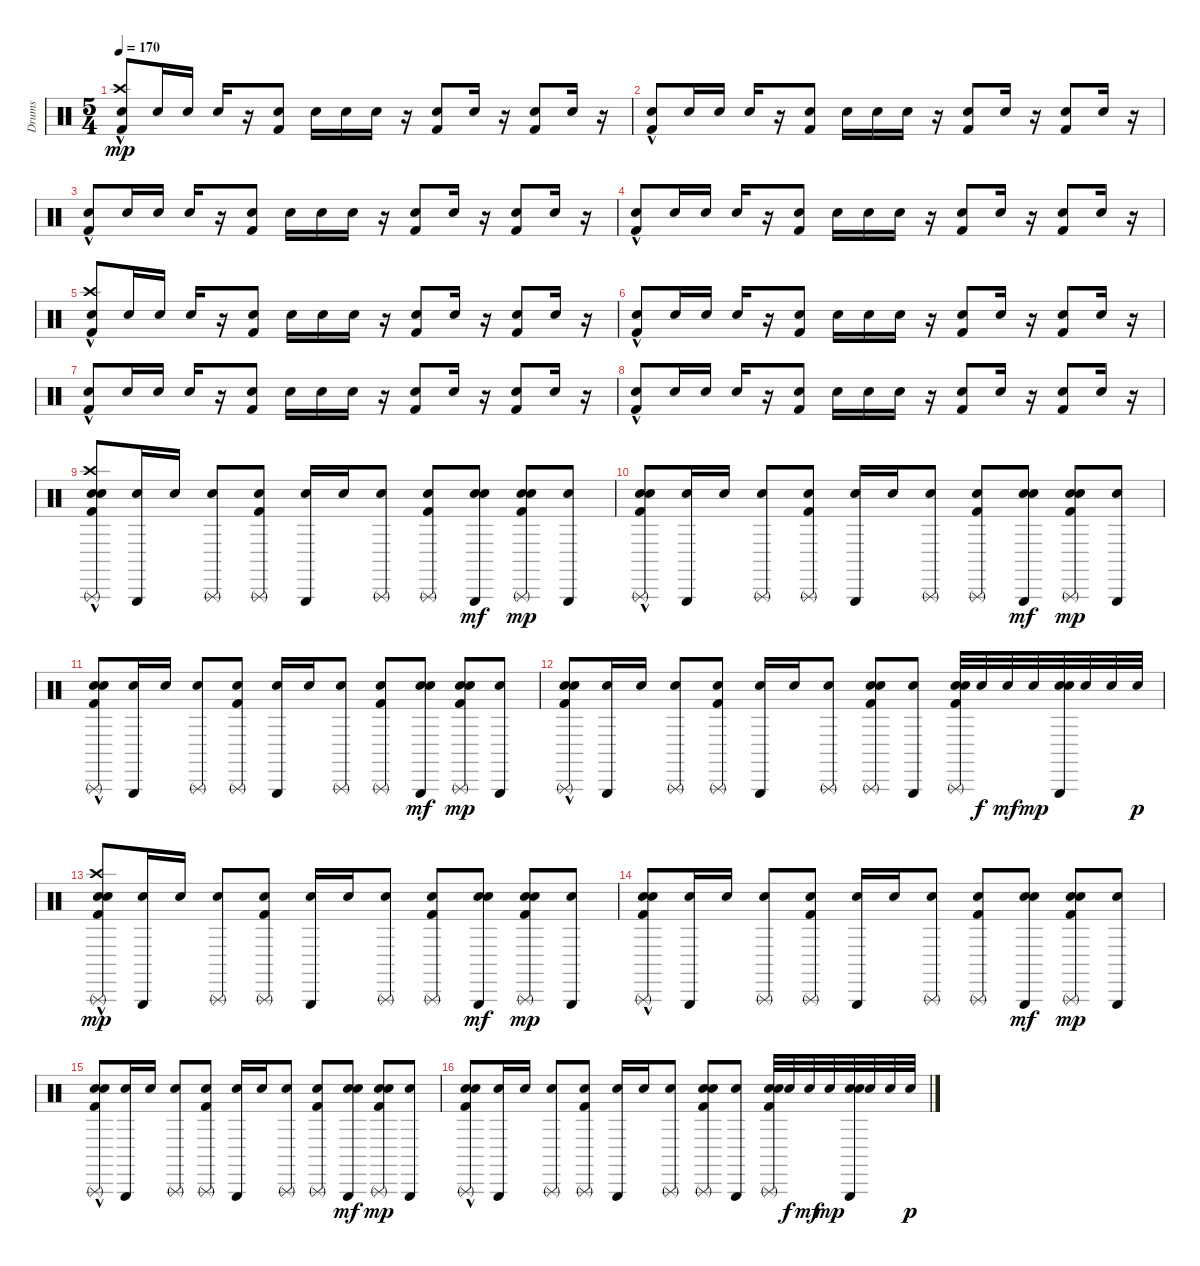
\track ("Drums" "Drums") {instrument percussion}
\staff {score}
\articulation defaults
\ts (5 4)
\tempo 170
\clef neutral
\ks c
("Metronome (bell)" "Crash high (hit)" "Kick (hit) 2"{hac}).8{dy mp} "Metronome (bell)".16 "Metronome (bell)".16 "Metronome (bell)".16 r.16 ("Metronome (bell)" "Kick (hit) 2").8 "Metronome (bell)".16 "Metronome (bell)".16 "Metronome (bell)".16 r.16 ("Metronome (bell)" "Kick (hit) 2").8 "Metronome (bell)".16 r.16 ("Metronome (bell)" "Kick (hit) 2").8 "Metronome (bell)".16 r.16 |
("Metronome (bell)" "Kick (hit) 2"{hac}).8 "Metronome (bell)".16 "Metronome (bell)".16 "Metronome (bell)".16 r.16 ("Metronome (bell)" "Kick (hit) 2").8 "Metronome (bell)".16 "Metronome (bell)".16 "Metronome (bell)".16 r.16 ("Metronome (bell)" "Kick (hit) 2").8 "Metronome (bell)".16 r.16 ("Metronome (bell)" "Kick (hit) 2").8 "Metronome (bell)".16 r.16 |
("Metronome (bell)" "Kick (hit) 2"{hac}).8 "Metronome (bell)".16 "Metronome (bell)".16 "Metronome (bell)".16 r.16 ("Metronome (bell)" "Kick (hit) 2").8 "Metronome (bell)".16 "Metronome (bell)".16 "Metronome (bell)".16 r.16 ("Metronome (bell)" "Kick (hit) 2").8 "Metronome (bell)".16 r.16 ("Metronome (bell)" "Kick (hit) 2").8 "Metronome (bell)".16 r.16 |
("Metronome (bell)" "Kick (hit) 2"{hac}).8 "Metronome (bell)".16 "Metronome (bell)".16 "Metronome (bell)".16 r.16 ("Metronome (bell)" "Kick (hit) 2").8 "Metronome (bell)".16 "Metronome (bell)".16 "Metronome (bell)".16 r.16 ("Metronome (bell)" "Kick (hit) 2").8 "Metronome (bell)".16 r.16 ("Metronome (bell)" "Kick (hit) 2").8 "Metronome (bell)".16 r.16 |
("Metronome (bell)" "Crash high (hit)" "Kick (hit) 2"{hac}).8 "Metronome (bell)".16 "Metronome (bell)".16 "Metronome (bell)".16 r.16 ("Metronome (bell)" "Kick (hit) 2").8 "Metronome (bell)".16 "Metronome (bell)".16 "Metronome (bell)".16 r.16 ("Metronome (bell)" "Kick (hit) 2").8 "Metronome (bell)".16 r.16 ("Metronome (bell)" "Kick (hit) 2").8 "Metronome (bell)".16 r.16 |
("Metronome (bell)" "Kick (hit) 2"{hac}).8 "Metronome (bell)".16 "Metronome (bell)".16 "Metronome (bell)".16 r.16 ("Metronome (bell)" "Kick (hit) 2").8 "Metronome (bell)".16 "Metronome (bell)".16 "Metronome (bell)".16 r.16 ("Metronome (bell)" "Kick (hit) 2").8 "Metronome (bell)".16 r.16 ("Metronome (bell)" "Kick (hit) 2").8 "Metronome (bell)".16 r.16 |
("Metronome (bell)" "Kick (hit) 2"{hac}).8 "Metronome (bell)".16 "Metronome (bell)".16 "Metronome (bell)".16 r.16 ("Metronome (bell)" "Kick (hit) 2").8 "Metronome (bell)".16 "Metronome (bell)".16 "Metronome (bell)".16 r.16 ("Metronome (bell)" "Kick (hit) 2").8 "Metronome (bell)".16 r.16 ("Metronome (bell)" "Kick (hit) 2").8 "Metronome (bell)".16 r.16 |
("Metronome (bell)" "Kick (hit) 2"{hac}).8 "Metronome (bell)".16 "Metronome (bell)".16 "Metronome (bell)".16 r.16 ("Metronome (bell)" "Kick (hit) 2").8 "Metronome (bell)".16 "Metronome (bell)".16 "Metronome (bell)".16 r.16 ("Metronome (bell)" "Kick (hit) 2").8 "Metronome (bell)".16 r.16 ("Metronome (bell)" "Kick (hit) 2").8 "Metronome (bell)".16 r.16 |
("Metronome (bell)" "Triangle (rnute)" "Electric Snare (hit)" "Crash high (hit)" "Kick (hit) 2"{hac}).8 ("Triangle (hit)" "Metronome (bell)").16 "Metronome (bell)".16 ("Triangle (rnute)" "Metronome (bell)").8 ("Metronome (bell)" "Triangle (rnute)" "Kick (hit) 2").8 ("Triangle (hit)" "Metronome (bell)").16 "Metronome (bell)".16 ("Triangle (rnute)" "Metronome (bell)").8 ("Metronome (bell)" "Triangle (rnute)" "Kick (hit) 2").8 ("Triangle (hit)" "Metronome (bell)" "Electric Snare (hit)").8{dy mf} ("Metronome (bell)" "Triangle (rnute)" "Electric Snare (hit)" "Kick (hit) 2").8{dy mp} ("Triangle (hit)" "Metronome (bell)").8 |
("Metronome (bell)" "Triangle (rnute)" "Electric Snare (hit)" "Kick (hit) 2"{hac}).8 ("Triangle (hit)" "Metronome (bell)").16 "Metronome (bell)".16 ("Triangle (rnute)" "Metronome (bell)").8 ("Metronome (bell)" "Triangle (rnute)" "Kick (hit) 2").8 ("Triangle (hit)" "Metronome (bell)").16 "Metronome (bell)".16 ("Triangle (rnute)" "Metronome (bell)").8 ("Metronome (bell)" "Triangle (rnute)" "Kick (hit) 2").8 ("Triangle (hit)" "Metronome (bell)" "Electric Snare (hit)").8{dy mf} ("Metronome (bell)" "Triangle (rnute)" "Electric Snare (hit)" "Kick (hit) 2").8{dy mp} ("Triangle (hit)" "Metronome (bell)").8 |
("Metronome (bell)" "Triangle (rnute)" "Electric Snare (hit)" "Kick (hit) 2"{hac}).8 ("Triangle (hit)" "Metronome (bell)").16 "Metronome (bell)".16 ("Triangle (rnute)" "Metronome (bell)").8 ("Metronome (bell)" "Triangle (rnute)" "Kick (hit) 2").8 ("Triangle (hit)" "Metronome (bell)").16 "Metronome (bell)".16 ("Triangle (rnute)" "Metronome (bell)").8 ("Metronome (bell)" "Triangle (rnute)" "Kick (hit) 2").8 ("Triangle (hit)" "Metronome (bell)" "Electric Snare (hit)").8{dy mf} ("Metronome (bell)" "Triangle (rnute)" "Electric Snare (hit)" "Kick (hit) 2").8{dy mp} ("Triangle (hit)" "Metronome (bell)").8 |
("Metronome (bell)" "Triangle (rnute)" "Electric Snare (hit)" "Kick (hit) 2"{hac}).8 ("Triangle (hit)" "Metronome (bell)").16 "Metronome (bell)".16 ("Triangle (rnute)" "Metronome (bell)").8 ("Metronome (bell)" "Triangle (rnute)" "Kick (hit) 2").8 ("Triangle (hit)" "Metronome (bell)").16 "Metronome (bell)".16 ("Triangle (rnute)" "Metronome (bell)").8 ("Metronome (bell)" "Triangle (rnute)" "Electric Snare (hit)" "Kick (hit) 2").8 ("Triangle (hit)" "Metronome (bell)").8 ("Metronome (bell)" "Triangle (rnute)" "Electric Snare (hit)" "Kick (hit) 2").32 "Electric Snare (hit)".32{dy f} "Electric Snare (hit)".32{dy mf} "Electric Snare (hit)".32{dy mp} ("Triangle (hit)" "Metronome (bell)" "Electric Snare (hit)").32 "Electric Snare (hit)".32 "Electric Snare (hit)".32 "Electric Snare (hit)".32{dy p} |
("Metronome (bell)" "Triangle (rnute)" "Electric Snare (hit)" "Crash high (hit)" "Kick (hit) 2"{hac}).8{dy mp} ("Triangle (hit)" "Metronome (bell)").16 "Metronome (bell)".16 ("Triangle (rnute)" "Metronome (bell)").8 ("Metronome (bell)" "Triangle (rnute)" "Kick (hit) 2").8 ("Triangle (hit)" "Metronome (bell)").16 "Metronome (bell)".16 ("Triangle (rnute)" "Metronome (bell)").8 ("Metronome (bell)" "Triangle (rnute)" "Kick (hit) 2").8 ("Triangle (hit)" "Metronome (bell)" "Electric Snare (hit)").8{dy mf} ("Metronome (bell)" "Triangle (rnute)" "Electric Snare (hit)" "Kick (hit) 2").8{dy mp} ("Triangle (hit)" "Metronome (bell)").8 |
("Metronome (bell)" "Triangle (rnute)" "Electric Snare (hit)" "Kick (hit) 2"{hac}).8 ("Triangle (hit)" "Metronome (bell)").16 "Metronome (bell)".16 ("Triangle (rnute)" "Metronome (bell)").8 ("Metronome (bell)" "Triangle (rnute)" "Kick (hit) 2").8 ("Triangle (hit)" "Metronome (bell)").16 "Metronome (bell)".16 ("Triangle (rnute)" "Metronome (bell)").8 ("Metronome (bell)" "Triangle (rnute)" "Kick (hit) 2").8 ("Triangle (hit)" "Metronome (bell)" "Electric Snare (hit)").8{dy mf} ("Metronome (bell)" "Triangle (rnute)" "Electric Snare (hit)" "Kick (hit) 2").8{dy mp} ("Triangle (hit)" "Metronome (bell)").8 |
("Metronome (bell)" "Triangle (rnute)" "Electric Snare (hit)" "Kick (hit) 2"{hac}).8 ("Triangle (hit)" "Metronome (bell)").16 "Metronome (bell)".16 ("Triangle (rnute)" "Metronome (bell)").8 ("Metronome (bell)" "Triangle (rnute)" "Kick (hit) 2").8 ("Triangle (hit)" "Metronome (bell)").16 "Metronome (bell)".16 ("Triangle (rnute)" "Metronome (bell)").8 ("Metronome (bell)" "Triangle (rnute)" "Kick (hit) 2").8 ("Triangle (hit)" "Metronome (bell)" "Electric Snare (hit)").8{dy mf} ("Metronome (bell)" "Triangle (rnute)" "Electric Snare (hit)" "Kick (hit) 2").8{dy mp} ("Triangle (hit)" "Metronome (bell)").8 |
("Metronome (bell)" "Triangle (rnute)" "Electric Snare (hit)" "Kick (hit) 2"{hac}).8 ("Triangle (hit)" "Metronome (bell)").16 "Metronome (bell)".16 ("Triangle (rnute)" "Metronome (bell)").8 ("Metronome (bell)" "Triangle (rnute)" "Kick (hit) 2").8 ("Triangle (hit)" "Metronome (bell)").16 "Metronome (bell)".16 ("Triangle (rnute)" "Metronome (bell)").8 ("Metronome (bell)" "Triangle (rnute)" "Electric Snare (hit)" "Kick (hit) 2").8 ("Triangle (hit)" "Metronome (bell)").8 ("Metronome (bell)" "Triangle (rnute)" "Electric Snare (hit)" "Kick (hit) 2").32 "Electric Snare (hit)".32{dy f} "Electric Snare (hit)".32{dy mf} "Electric Snare (hit)".32{dy mp} ("Triangle (hit)" "Metronome (bell)" "Electric Snare (hit)").32 "Electric Snare (hit)".32 "Electric Snare (hit)".32 "Electric Snare (hit)".32{dy p}
